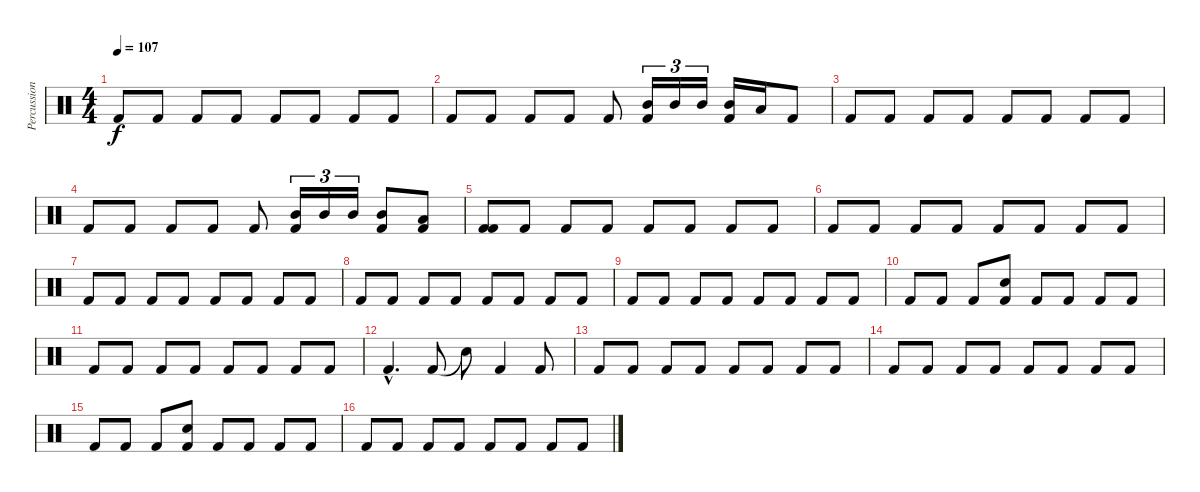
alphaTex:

\track ("Percussion" "Percussion") {instrument percussion}
\staff {score}
\articulation defaults
\ts (4 4)
\tempo 107
\clef neutral
\ks c "Kick (hit) 2".8{dy f} "Kick (hit) 2".8 "Kick (hit) 2".8 "Kick (hit) 2".8 "Kick (hit) 2".8 "Kick (hit) 2".8 "Kick (hit) 2".8 "Kick (hit) 2".8
|
"Kick (hit) 2".8 "Kick (hit) 2".8 "Kick (hit) 2".8 "Kick (hit) 2".8 "Kick (hit) 2".8 ("Mid Tom (hit)" "Kick (hit) 2").16{tu (3 2)} "Mid Tom (hit)".16{tu (3 2)} "Mid Tom (hit)".16{tu (3 2)} ("Mid Tom (hit)" "Kick (hit) 2").16 "Low Floor Tom (hit)".16 "Kick (hit) 2".8 |
"Kick (hit) 2".8 "Kick (hit) 2".8 "Kick (hit) 2".8 "Kick (hit) 2".8 "Kick (hit) 2".8 "Kick (hit) 2".8 "Kick (hit) 2".8 "Kick (hit) 2".8 |
"Kick (hit) 2".8 "Kick (hit) 2".8 "Kick (hit) 2".8 "Kick (hit) 2".8 "Kick (hit) 2".8 ("Mid Tom (hit)" "Kick (hit) 2").16{tu (3 2)} "Mid Tom (hit)".16{tu (3 2)} "Mid Tom (hit)".16{tu (3 2)} ("Mid Tom (hit)" "Kick (hit) 2").8 ("Low Floor Tom (hit)" "Kick (hit) 2").8 |
("Kick (hit) 2" "Kick (hit) 2").8 "Kick (hit) 2".8 "Kick (hit) 2".8 "Kick (hit) 2".8 "Kick (hit) 2".8 "Kick (hit) 2".8 "Kick (hit) 2".8 "Kick (hit) 2".8 |
"Kick (hit) 2".8 "Kick (hit) 2".8 "Kick (hit) 2".8 "Kick (hit) 2".8 "Kick (hit) 2".8 "Kick (hit) 2".8 "Kick (hit) 2".8 "Kick (hit) 2".8 |
"Kick (hit) 2".8 "Kick (hit) 2".8 "Kick (hit) 2".8 "Kick (hit) 2".8 "Kick (hit) 2".8 "Kick (hit) 2".8 "Kick (hit) 2".8 "Kick (hit) 2".8 |
"Kick (hit) 2".8 "Kick (hit) 2".8 "Kick (hit) 2".8 "Kick (hit) 2".8 "Kick (hit) 2".8 "Kick (hit) 2".8 "Kick (hit) 2".8 "Kick (hit) 2".8 |
"Kick (hit) 2".8 "Kick (hit) 2".8 "Kick (hit) 2".8 "Kick (hit) 2".8 "Kick (hit) 2".8 "Kick (hit) 2".8 "Kick (hit) 2".8 "Kick (hit) 2".8 |
"Kick (hit) 2".8 "Kick (hit) 2".8 "Kick (hit) 2".8 ("Electric Snare (hit)" "Kick (hit) 2").8 "Kick (hit) 2".8 "Kick (hit) 2".8 "Kick (hit) 2".8 "Kick (hit) 2".8 |
"Kick (hit) 2".8 "Kick (hit) 2".8 "Kick (hit) 2".8 "Kick (hit) 2".8 "Kick (hit) 2".8 "Kick (hit) 2".8 "Kick (hit) 2".8 "Kick (hit) 2".8 |
"Kick (hit) 2"{hac}.4{d} "Kick (hit) 2".8 "Snare (hit)"{t}.8 "Kick (hit) 2".4 "Kick (hit) 2".8 |
"Kick (hit) 2".8 "Kick (hit) 2".8 "Kick (hit) 2".8 "Kick (hit) 2".8 "Kick (hit) 2".8 "Kick (hit) 2".8 "Kick (hit) 2".8 "Kick (hit) 2".8 |
"Kick (hit) 2".8 "Kick (hit) 2".8 "Kick (hit) 2".8 "Kick (hit) 2".8 "Kick (hit) 2".8 "Kick (hit) 2".8 "Kick (hit) 2".8 "Kick (hit) 2".8 |
"Kick (hit) 2".8 "Kick (hit) 2".8 "Kick (hit) 2".8 ("Electric Snare (hit)" "Kick (hit) 2").8 "Kick (hit) 2".8 "Kick (hit) 2".8 "Kick (hit) 2".8 "Kick (hit) 2".8 |
"Kick (hit) 2".8 "Kick (hit) 2".8 "Kick (hit) 2".8 "Kick (hit) 2".8 "Kick (hit) 2".8 "Kick (hit) 2".8 "Kick (hit) 2".8 "Kick (hit) 2".8
